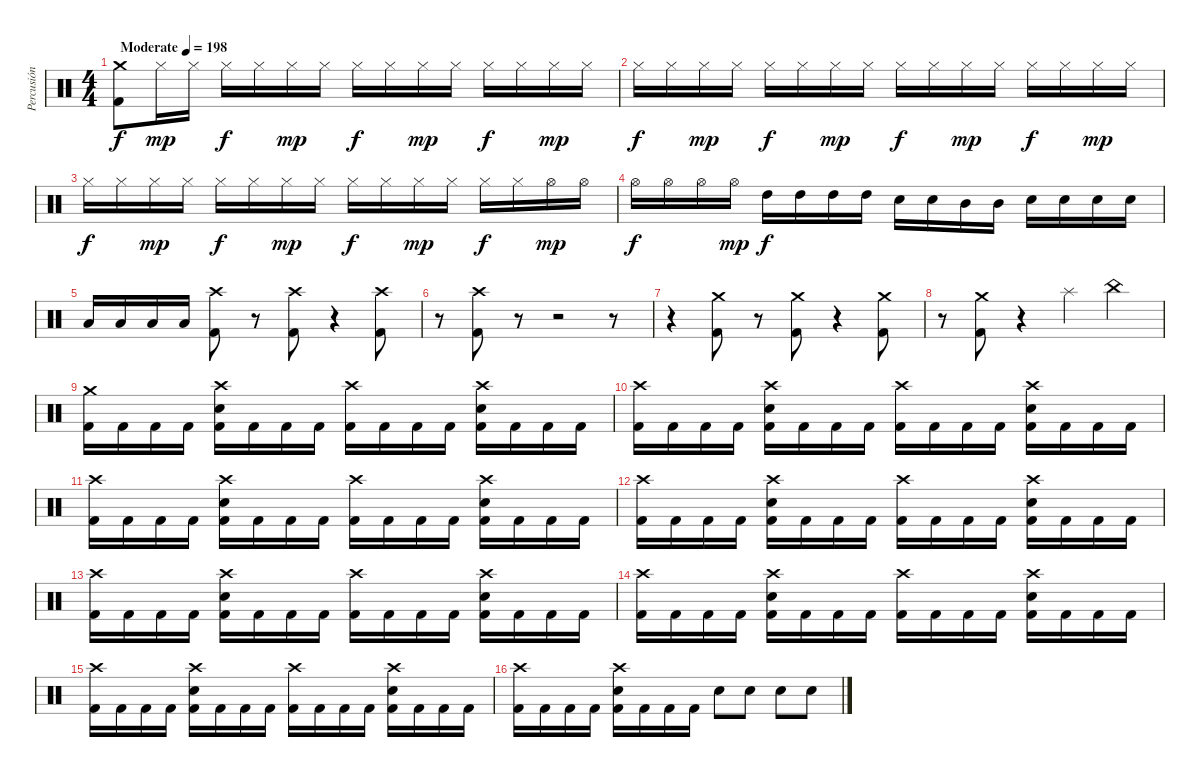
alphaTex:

\track ("Percusión" "Percusión") {instrument percussion}
\staff {score}
\articulation defaults
\ts (4 4)
\tempo (198 "Moderate")
\clef neutral
\ks c
("Crash medium (hit)" "Kick (hit) 2").8{dy f} "Hi-Hat (closed)".16{dy mp} "Hi-Hat (closed)".16 "Hi-Hat (closed)".16{dy f} "Hi-Hat (closed)".16 "Hi-Hat (closed)".16{dy mp} "Hi-Hat (closed)".16 "Hi-Hat (closed)".16{dy f} "Hi-Hat (closed)".16 "Hi-Hat (closed)".16{dy mp} "Hi-Hat (closed)".16 "Hi-Hat (closed)".16{dy f} "Hi-Hat (closed)".16 "Hi-Hat (closed)".16{dy mp} "Hi-Hat (closed)".16 |
"Hi-Hat (closed)".16{dy f} "Hi-Hat (closed)".16 "Hi-Hat (closed)".16{dy mp} "Hi-Hat (closed)".16 "Hi-Hat (closed)".16{dy f} "Hi-Hat (closed)".16 "Hi-Hat (closed)".16{dy mp} "Hi-Hat (closed)".16 "Hi-Hat (closed)".16{dy f} "Hi-Hat (closed)".16 "Hi-Hat (closed)".16{dy mp} "Hi-Hat (closed)".16 "Hi-Hat (closed)".16{dy f} "Hi-Hat (closed)".16 "Hi-Hat (closed)".16{dy mp} "Hi-Hat (closed)".16 |
"Hi-Hat (closed)".16{dy f} "Hi-Hat (closed)".16 "Hi-Hat (closed)".16{dy mp} "Hi-Hat (closed)".16 "Hi-Hat (closed)".16{dy f} "Hi-Hat (closed)".16 "Hi-Hat (closed)".16{dy mp} "Hi-Hat (closed)".16 "Hi-Hat (closed)".16{dy f} "Hi-Hat (closed)".16 "Hi-Hat (closed)".16{dy mp} "Hi-Hat (closed)".16 "Hi-Hat (closed)".16{dy f} "Hi-Hat (closed)".16 "Hi-Hat (open)".16{dy mp} "Hi-Hat (open)".16 |
"Hi-Hat (open)".16{dy f} "Hi-Hat (open)".16 "Hi-Hat (open)".16 "Hi-Hat (open)".16{dy mp} "High Tom (hit)".16{dy f} "High Tom (hit)".16 "High Tom (hit)".16 "High Tom (hit)".16 "Electric Snare (hit)".16 "Electric Snare (hit)".16 "Mid Tom (hit)".16 "Mid Tom (hit)".16 "Electric Snare (hit)".16 "Electric Snare (hit)".16 "Electric Snare (hit)".16 "Electric Snare (hit)".16 |
"Low Tom (hit)".16 "Low Tom (hit)".16 "Low Tom (hit)".16 "Low Tom (hit)".16 ("Crash high (hit)" "Kick (hit) 2").8 r.8{volume 0} ("Crash high (hit)" "Kick (hit) 2").8{volume 16} r.4{volume 0} ("Crash high (hit)" "Kick (hit) 2").8{volume 16} |
r.8{volume 0} ("Crash high (hit)" "Kick (hit) 2").8{volume 16} r.8{volume 0} r.2 r.8 |
r.4 ("Crash medium (hit)" "Kick (hit) 2").8{volume 16} r.8{volume 0} ("Crash medium (hit)" "Kick (hit) 2").8{volume 16} r.4{volume 0} ("Crash medium (hit)" "Kick (hit) 2").8{volume 16} |
r.8{volume 0} ("Crash medium (hit)" "Kick (hit) 2").8{volume 16} r.4{volume 0} "Splash (hit)".4{volume 16} "China (hit)".4 |
("Crash medium (hit)" "Kick (hit) 2").16 "Kick (hit) 2".16 "Kick (hit) 2".16 "Kick (hit) 2".16 ("Crash high (hit)" "Electric Snare (hit)" "Kick (hit) 2").16 "Kick (hit) 2".16 "Kick (hit) 2".16 "Kick (hit) 2".16 ("Crash high (hit)" "Kick (hit) 2").16 "Kick (hit) 2".16 "Kick (hit) 2".16 "Kick (hit) 2".16 ("Crash high (hit)" "Electric Snare (hit)" "Kick (hit) 2").16 "Kick (hit) 2".16 "Kick (hit) 2".16 "Kick (hit) 2".16 |
("Crash high (hit)" "Kick (hit) 2").16 "Kick (hit) 2".16 "Kick (hit) 2".16 "Kick (hit) 2".16 ("Crash high (hit)" "Electric Snare (hit)" "Kick (hit) 2").16 "Kick (hit) 2".16 "Kick (hit) 2".16 "Kick (hit) 2".16 ("Crash high (hit)" "Kick (hit) 2").16 "Kick (hit) 2".16 "Kick (hit) 2".16 "Kick (hit) 2".16 ("Crash high (hit)" "Electric Snare (hit)" "Kick (hit) 2").16 "Kick (hit) 2".16 "Kick (hit) 2".16 "Kick (hit) 2".16 |
("Crash high (hit)" "Kick (hit) 2").16 "Kick (hit) 2".16 "Kick (hit) 2".16 "Kick (hit) 2".16 ("Crash high (hit)" "Electric Snare (hit)" "Kick (hit) 2").16 "Kick (hit) 2".16 "Kick (hit) 2".16 "Kick (hit) 2".16 ("Crash high (hit)" "Kick (hit) 2").16 "Kick (hit) 2".16 "Kick (hit) 2".16 "Kick (hit) 2".16 ("Crash high (hit)" "Electric Snare (hit)" "Kick (hit) 2").16 "Kick (hit) 2".16 "Kick (hit) 2".16 "Kick (hit) 2".16 |
("Crash high (hit)" "Kick (hit) 2").16 "Kick (hit) 2".16 "Kick (hit) 2".16 "Kick (hit) 2".16 ("Crash high (hit)" "Electric Snare (hit)" "Kick (hit) 2").16 "Kick (hit) 2".16 "Kick (hit) 2".16 "Kick (hit) 2".16 ("Crash high (hit)" "Kick (hit) 2").16 "Kick (hit) 2".16 "Kick (hit) 2".16 "Kick (hit) 2".16 ("Crash high (hit)" "Electric Snare (hit)" "Kick (hit) 2").16 "Kick (hit) 2".16 "Kick (hit) 2".16 "Kick (hit) 2".16 |
("Crash high (hit)" "Kick (hit) 2").16 "Kick (hit) 2".16 "Kick (hit) 2".16 "Kick (hit) 2".16 ("Crash high (hit)" "Electric Snare (hit)" "Kick (hit) 2").16 "Kick (hit) 2".16 "Kick (hit) 2".16 "Kick (hit) 2".16 ("Crash high (hit)" "Kick (hit) 2").16 "Kick (hit) 2".16 "Kick (hit) 2".16 "Kick (hit) 2".16 ("Crash high (hit)" "Electric Snare (hit)" "Kick (hit) 2").16 "Kick (hit) 2".16 "Kick (hit) 2".16 "Kick (hit) 2".16 |
("Crash high (hit)" "Kick (hit) 2").16 "Kick (hit) 2".16 "Kick (hit) 2".16 "Kick (hit) 2".16 ("Crash high (hit)" "Electric Snare (hit)" "Kick (hit) 2").16 "Kick (hit) 2".16 "Kick (hit) 2".16 "Kick (hit) 2".16 ("Crash high (hit)" "Kick (hit) 2").16 "Kick (hit) 2".16 "Kick (hit) 2".16 "Kick (hit) 2".16 ("Crash high (hit)" "Electric Snare (hit)" "Kick (hit) 2").16 "Kick (hit) 2".16 "Kick (hit) 2".16 "Kick (hit) 2".16 |
("Crash high (hit)" "Kick (hit) 2").16 "Kick (hit) 2".16 "Kick (hit) 2".16 "Kick (hit) 2".16 ("Crash high (hit)" "Electric Snare (hit)" "Kick (hit) 2").16 "Kick (hit) 2".16 "Kick (hit) 2".16 "Kick (hit) 2".16 ("Crash high (hit)" "Kick (hit) 2").16 "Kick (hit) 2".16 "Kick (hit) 2".16 "Kick (hit) 2".16 ("Crash high (hit)" "Electric Snare (hit)" "Kick (hit) 2").16 "Kick (hit) 2".16 "Kick (hit) 2".16 "Kick (hit) 2".16 |
("Crash high (hit)" "Kick (hit) 2").16 "Kick (hit) 2".16 "Kick (hit) 2".16 "Kick (hit) 2".16 ("Crash high (hit)" "Electric Snare (hit)" "Kick (hit) 2").16 "Kick (hit) 2".16 "Kick (hit) 2".16 "Kick (hit) 2".16 "Electric Snare (hit)".8 "Electric Snare (hit)".8 "Electric Snare (hit)".8 "Electric Snare (hit)".8
